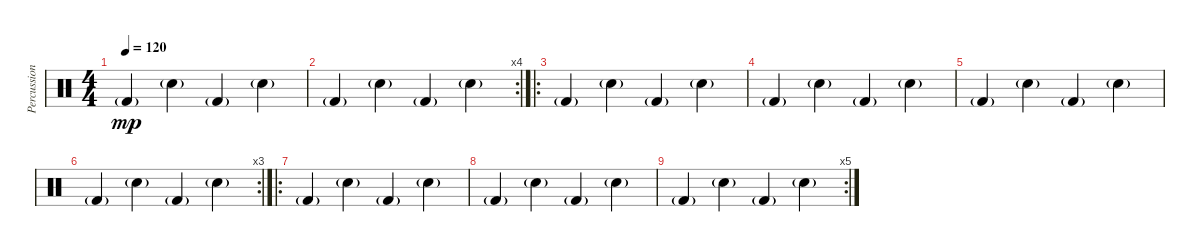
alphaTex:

\track ("Percussion" "Percussion") {instrument percussion}
\staff {score}
\articulation defaults
\ts (4 4)
\tempo 120
\clef neutral
\ks c "Kick (hit) 2"{g}.4{dy mp} "Electric Snare (hit)"{g}.4 "Kick (hit) 2"{g}.4 "Electric Snare (hit)"{g}.4
|
\rc 4 "Kick (hit) 2"{g}.4 "Electric Snare (hit)"{g}.4 "Kick (hit) 2"{g}.4 "Electric Snare (hit)"{g}.4
|
\ro "Kick (hit) 2"{g}.4 "Electric Snare (hit)"{g}.4 "Kick (hit) 2"{g}.4 "Electric Snare (hit)"{g}.4
|
"Kick (hit) 2"{g}.4 "Electric Snare (hit)"{g}.4 "Kick (hit) 2"{g}.4 "Electric Snare (hit)"{g}.4 |
"Kick (hit) 2"{g}.4 "Electric Snare (hit)"{g}.4 "Kick (hit) 2"{g}.4 "Electric Snare (hit)"{g}.4 |
\rc 3 "Kick (hit) 2"{g}.4 "Electric Snare (hit)"{g}.4 "Kick (hit) 2"{g}.4 "Electric Snare (hit)"{g}.4
|
\ro "Kick (hit) 2"{g}.4 "Electric Snare (hit)"{g}.4 "Kick (hit) 2"{g}.4 "Electric Snare (hit)"{g}.4
|
"Kick (hit) 2"{g}.4 "Electric Snare (hit)"{g}.4 "Kick (hit) 2"{g}.4 "Electric Snare (hit)"{g}.4 |
\rc 5 "Kick (hit) 2"{g}.4 "Electric Snare (hit)"{g}.4 "Kick (hit) 2"{g}.4 "Electric Snare (hit)"{g}.4
